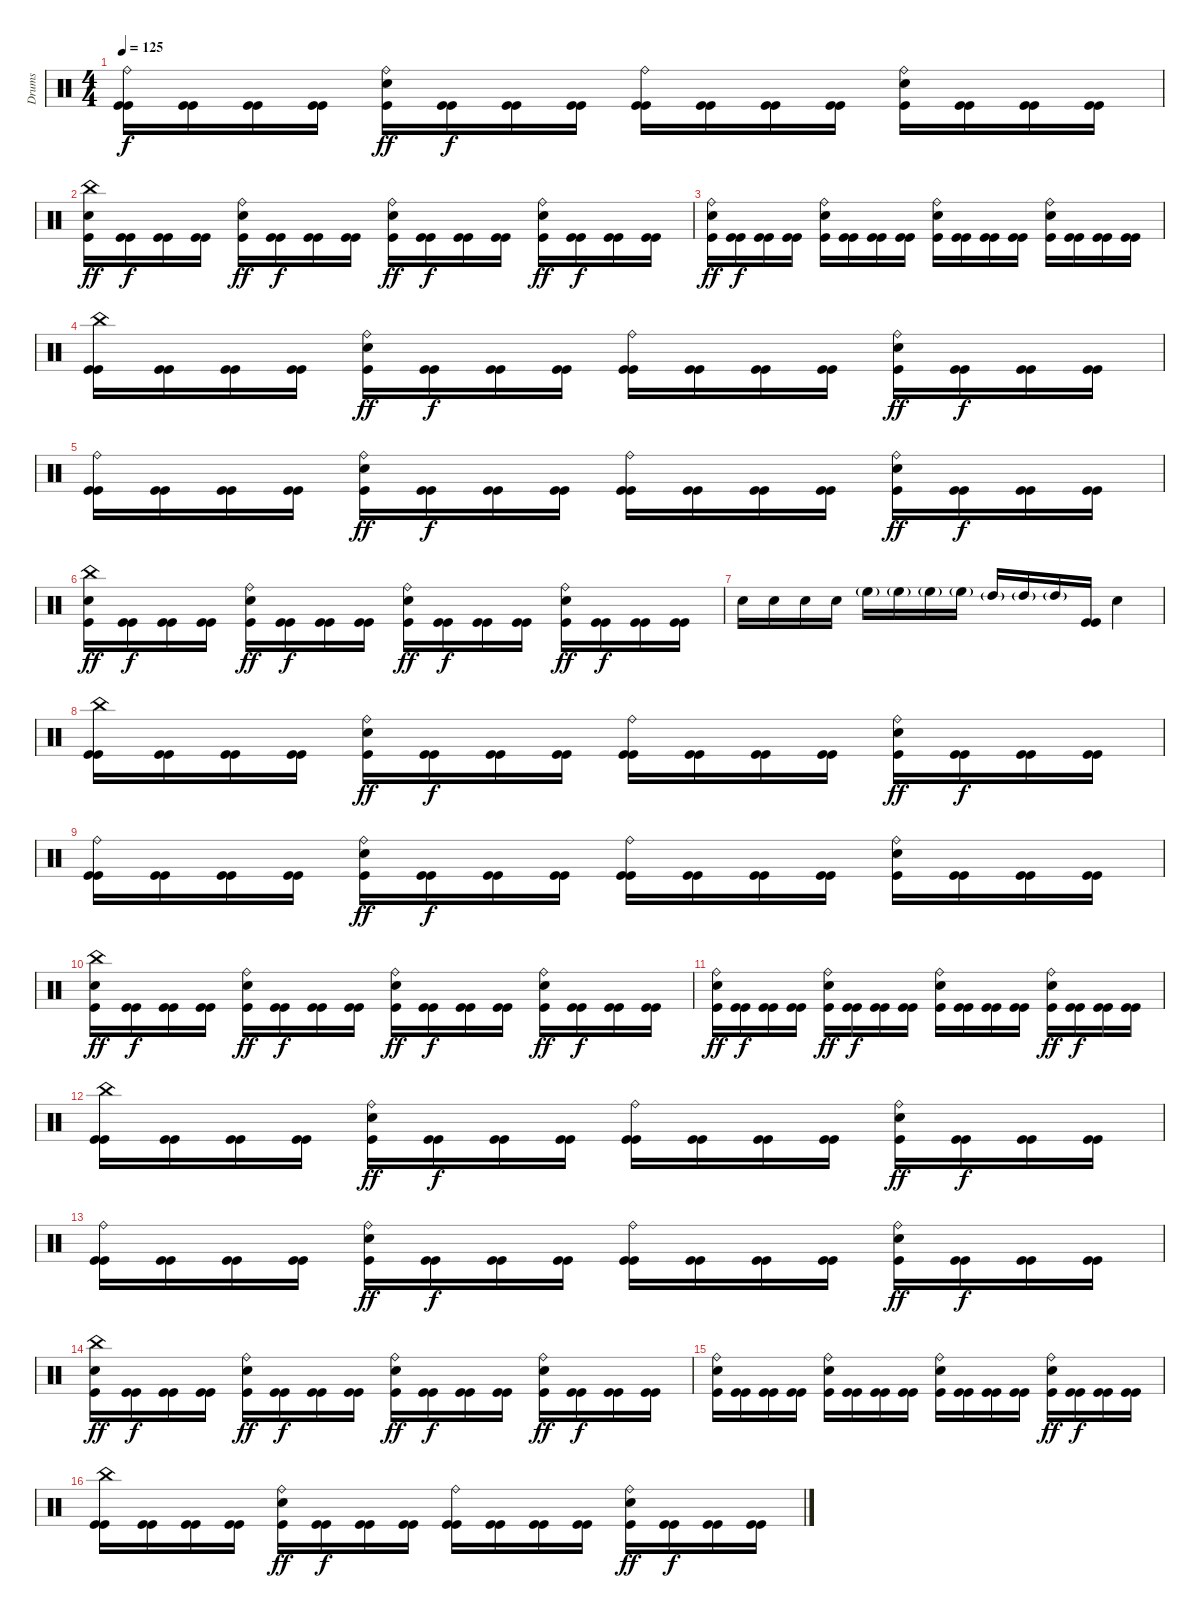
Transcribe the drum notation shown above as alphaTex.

\track ("Drums" "Drums") {instrument percussion}
\staff {score}
\articulation defaults
\ts (4 4)
\tempo 125
\clef neutral
\ks c
("Ride (bell)" "Kick (hit)" "Kick (hit)").16{dy f} ("Kick (hit)" "Kick (hit)").16 ("Kick (hit)" "Kick (hit)").16 ("Kick (hit)" "Kick (hit)").16 ("Ride (bell)" "Electric Snare (hit)" "Kick (hit)").16{dy ff} ("Kick (hit)" "Kick (hit)").16{dy f} ("Kick (hit)" "Kick (hit)").16 ("Kick (hit)" "Kick (hit)").16 ("Ride (bell)" "Kick (hit)" "Kick (hit)").16 ("Kick (hit)" "Kick (hit)").16 ("Kick (hit)" "Kick (hit)").16 ("Kick (hit)" "Kick (hit)").16 ("Ride (bell)" "Electric Snare (hit)" "Kick (hit)").16 ("Kick (hit)" "Kick (hit)").16 ("Kick (hit)" "Kick (hit)").16 ("Kick (hit)" "Kick (hit)").16 |
("China (hit)" "Electric Snare (hit)" "Kick (hit)").16{dy ff} ("Kick (hit)" "Kick (hit)").16{dy f} ("Kick (hit)" "Kick (hit)").16 ("Kick (hit)" "Kick (hit)").16 ("Ride (bell)" "Electric Snare (hit)" "Kick (hit)").16{dy ff} ("Kick (hit)" "Kick (hit)").16{dy f} ("Kick (hit)" "Kick (hit)").16 ("Kick (hit)" "Kick (hit)").16 ("Ride (bell)" "Electric Snare (hit)" "Kick (hit)").16{dy ff} ("Kick (hit)" "Kick (hit)").16{dy f} ("Kick (hit)" "Kick (hit)").16 ("Kick (hit)" "Kick (hit)").16 ("Ride (bell)" "Electric Snare (hit)" "Kick (hit)").16{dy ff} ("Kick (hit)" "Kick (hit)").16{dy f} ("Kick (hit)" "Kick (hit)").16 ("Kick (hit)" "Kick (hit)").16 |
("Ride (bell)" "Electric Snare (hit)" "Kick (hit)").16{dy ff} ("Kick (hit)" "Kick (hit)").16{dy f} ("Kick (hit)" "Kick (hit)").16 ("Kick (hit)" "Kick (hit)").16 ("Ride (bell)" "Electric Snare (hit)" "Kick (hit)").16 ("Kick (hit)" "Kick (hit)").16 ("Kick (hit)" "Kick (hit)").16 ("Kick (hit)" "Kick (hit)").16 ("Ride (bell)" "Electric Snare (hit)" "Kick (hit)").16 ("Kick (hit)" "Kick (hit)").16 ("Kick (hit)" "Kick (hit)").16 ("Kick (hit)" "Kick (hit)").16 ("Ride (bell)" "Electric Snare (hit)" "Kick (hit)").16 ("Kick (hit)" "Kick (hit)").16 ("Kick (hit)" "Kick (hit)").16 ("Kick (hit)" "Kick (hit)").16 |
("China (hit)" "Kick (hit)" "Kick (hit)").16 ("Kick (hit)" "Kick (hit)").16 ("Kick (hit)" "Kick (hit)").16 ("Kick (hit)" "Kick (hit)").16 ("Ride (bell)" "Electric Snare (hit)" "Kick (hit)").16{dy ff} ("Kick (hit)" "Kick (hit)").16{dy f} ("Kick (hit)" "Kick (hit)").16 ("Kick (hit)" "Kick (hit)").16 ("Ride (bell)" "Kick (hit)" "Kick (hit)").16 ("Kick (hit)" "Kick (hit)").16 ("Kick (hit)" "Kick (hit)").16 ("Kick (hit)" "Kick (hit)").16 ("Ride (bell)" "Electric Snare (hit)" "Kick (hit)").16{dy ff} ("Kick (hit)" "Kick (hit)").16{dy f} ("Kick (hit)" "Kick (hit)").16 ("Kick (hit)" "Kick (hit)").16 |
("Ride (bell)" "Kick (hit)" "Kick (hit)").16 ("Kick (hit)" "Kick (hit)").16 ("Kick (hit)" "Kick (hit)").16 ("Kick (hit)" "Kick (hit)").16 ("Ride (bell)" "Electric Snare (hit)" "Kick (hit)").16{dy ff} ("Kick (hit)" "Kick (hit)").16{dy f} ("Kick (hit)" "Kick (hit)").16 ("Kick (hit)" "Kick (hit)").16 ("Ride (bell)" "Kick (hit)" "Kick (hit)").16 ("Kick (hit)" "Kick (hit)").16 ("Kick (hit)" "Kick (hit)").16 ("Kick (hit)" "Kick (hit)").16 ("Ride (bell)" "Electric Snare (hit)" "Kick (hit)").16{dy ff} ("Kick (hit)" "Kick (hit)").16{dy f} ("Kick (hit)" "Kick (hit)").16 ("Kick (hit)" "Kick (hit)").16 |
("China (hit)" "Electric Snare (hit)" "Kick (hit)").16{dy ff} ("Kick (hit)" "Kick (hit)").16{dy f} ("Kick (hit)" "Kick (hit)").16 ("Kick (hit)" "Kick (hit)").16 ("Ride (bell)" "Electric Snare (hit)" "Kick (hit)").16{dy ff} ("Kick (hit)" "Kick (hit)").16{dy f} ("Kick (hit)" "Kick (hit)").16 ("Kick (hit)" "Kick (hit)").16 ("Ride (bell)" "Electric Snare (hit)" "Kick (hit)").16{dy ff} ("Kick (hit)" "Kick (hit)").16{dy f} ("Kick (hit)" "Kick (hit)").16 ("Kick (hit)" "Kick (hit)").16 ("Ride (bell)" "Electric Snare (hit)" "Kick (hit)").16{dy ff} ("Kick (hit)" "Kick (hit)").16{dy f} ("Kick (hit)" "Kick (hit)").16 ("Kick (hit)" "Kick (hit)").16 |
"Electric Snare (hit)".16 "Electric Snare (hit)".16 "Electric Snare (hit)".16 "Electric Snare (hit)".16 "High Floor Tom (hit)"{g}.16 "High Floor Tom (hit)"{g}.16 "High Floor Tom (hit)"{g}.16 "High Floor Tom (hit)"{g}.16 "High Tom (hit)"{g}.16 "High Tom (hit)"{g}.16 "High Tom (hit)"{g}.16 ("Kick (hit)" "Kick (hit)").16 "Electric Snare (hit)".4 |
("China (hit)" "Kick (hit)" "Kick (hit)").16 ("Kick (hit)" "Kick (hit)").16 ("Kick (hit)" "Kick (hit)").16 ("Kick (hit)" "Kick (hit)").16 ("Ride (bell)" "Electric Snare (hit)" "Kick (hit)").16{dy ff} ("Kick (hit)" "Kick (hit)").16{dy f} ("Kick (hit)" "Kick (hit)").16 ("Kick (hit)" "Kick (hit)").16 ("Ride (bell)" "Kick (hit)" "Kick (hit)").16 ("Kick (hit)" "Kick (hit)").16 ("Kick (hit)" "Kick (hit)").16 ("Kick (hit)" "Kick (hit)").16 ("Ride (bell)" "Electric Snare (hit)" "Kick (hit)").16{dy ff} ("Kick (hit)" "Kick (hit)").16{dy f} ("Kick (hit)" "Kick (hit)").16 ("Kick (hit)" "Kick (hit)").16 |
("Ride (bell)" "Kick (hit)" "Kick (hit)").16 ("Kick (hit)" "Kick (hit)").16 ("Kick (hit)" "Kick (hit)").16 ("Kick (hit)" "Kick (hit)").16 ("Ride (bell)" "Electric Snare (hit)" "Kick (hit)").16{dy ff} ("Kick (hit)" "Kick (hit)").16{dy f} ("Kick (hit)" "Kick (hit)").16 ("Kick (hit)" "Kick (hit)").16 ("Ride (bell)" "Kick (hit)" "Kick (hit)").16 ("Kick (hit)" "Kick (hit)").16 ("Kick (hit)" "Kick (hit)").16 ("Kick (hit)" "Kick (hit)").16 ("Ride (bell)" "Electric Snare (hit)" "Kick (hit)").16 ("Kick (hit)" "Kick (hit)").16 ("Kick (hit)" "Kick (hit)").16 ("Kick (hit)" "Kick (hit)").16 |
("China (hit)" "Electric Snare (hit)" "Kick (hit)").16{dy ff} ("Kick (hit)" "Kick (hit)").16{dy f} ("Kick (hit)" "Kick (hit)").16 ("Kick (hit)" "Kick (hit)").16 ("Ride (bell)" "Electric Snare (hit)" "Kick (hit)").16{dy ff} ("Kick (hit)" "Kick (hit)").16{dy f} ("Kick (hit)" "Kick (hit)").16 ("Kick (hit)" "Kick (hit)").16 ("Ride (bell)" "Electric Snare (hit)" "Kick (hit)").16{dy ff} ("Kick (hit)" "Kick (hit)").16{dy f} ("Kick (hit)" "Kick (hit)").16 ("Kick (hit)" "Kick (hit)").16 ("Ride (bell)" "Electric Snare (hit)" "Kick (hit)").16{dy ff} ("Kick (hit)" "Kick (hit)").16{dy f} ("Kick (hit)" "Kick (hit)").16 ("Kick (hit)" "Kick (hit)").16 |
("Ride (bell)" "Electric Snare (hit)" "Kick (hit)").16{dy ff} ("Kick (hit)" "Kick (hit)").16{dy f} ("Kick (hit)" "Kick (hit)").16 ("Kick (hit)" "Kick (hit)").16 ("Ride (bell)" "Electric Snare (hit)" "Kick (hit)").16{dy ff} ("Kick (hit)" "Kick (hit)").16{dy f} ("Kick (hit)" "Kick (hit)").16 ("Kick (hit)" "Kick (hit)").16 ("Ride (bell)" "Electric Snare (hit)" "Kick (hit)").16 ("Kick (hit)" "Kick (hit)").16 ("Kick (hit)" "Kick (hit)").16 ("Kick (hit)" "Kick (hit)").16 ("Ride (bell)" "Electric Snare (hit)" "Kick (hit)").16{dy ff} ("Kick (hit)" "Kick (hit)").16{dy f} ("Kick (hit)" "Kick (hit)").16 ("Kick (hit)" "Kick (hit)").16 |
("China (hit)" "Kick (hit)" "Kick (hit)").16 ("Kick (hit)" "Kick (hit)").16 ("Kick (hit)" "Kick (hit)").16 ("Kick (hit)" "Kick (hit)").16 ("Ride (bell)" "Electric Snare (hit)" "Kick (hit)").16{dy ff} ("Kick (hit)" "Kick (hit)").16{dy f} ("Kick (hit)" "Kick (hit)").16 ("Kick (hit)" "Kick (hit)").16 ("Ride (bell)" "Kick (hit)" "Kick (hit)").16 ("Kick (hit)" "Kick (hit)").16 ("Kick (hit)" "Kick (hit)").16 ("Kick (hit)" "Kick (hit)").16 ("Ride (bell)" "Electric Snare (hit)" "Kick (hit)").16{dy ff} ("Kick (hit)" "Kick (hit)").16{dy f} ("Kick (hit)" "Kick (hit)").16 ("Kick (hit)" "Kick (hit)").16 |
("Ride (bell)" "Kick (hit)" "Kick (hit)").16 ("Kick (hit)" "Kick (hit)").16 ("Kick (hit)" "Kick (hit)").16 ("Kick (hit)" "Kick (hit)").16 ("Ride (bell)" "Electric Snare (hit)" "Kick (hit)").16{dy ff} ("Kick (hit)" "Kick (hit)").16{dy f} ("Kick (hit)" "Kick (hit)").16 ("Kick (hit)" "Kick (hit)").16 ("Ride (bell)" "Kick (hit)" "Kick (hit)").16 ("Kick (hit)" "Kick (hit)").16 ("Kick (hit)" "Kick (hit)").16 ("Kick (hit)" "Kick (hit)").16 ("Ride (bell)" "Electric Snare (hit)" "Kick (hit)").16{dy ff} ("Kick (hit)" "Kick (hit)").16{dy f} ("Kick (hit)" "Kick (hit)").16 ("Kick (hit)" "Kick (hit)").16 |
("China (hit)" "Electric Snare (hit)" "Kick (hit)").16{dy ff} ("Kick (hit)" "Kick (hit)").16{dy f} ("Kick (hit)" "Kick (hit)").16 ("Kick (hit)" "Kick (hit)").16 ("Ride (bell)" "Electric Snare (hit)" "Kick (hit)").16{dy ff} ("Kick (hit)" "Kick (hit)").16{dy f} ("Kick (hit)" "Kick (hit)").16 ("Kick (hit)" "Kick (hit)").16 ("Ride (bell)" "Electric Snare (hit)" "Kick (hit)").16{dy ff} ("Kick (hit)" "Kick (hit)").16{dy f} ("Kick (hit)" "Kick (hit)").16 ("Kick (hit)" "Kick (hit)").16 ("Ride (bell)" "Electric Snare (hit)" "Kick (hit)").16{dy ff} ("Kick (hit)" "Kick (hit)").16{dy f} ("Kick (hit)" "Kick (hit)").16 ("Kick (hit)" "Kick (hit)").16 |
("Ride (bell)" "Electric Snare (hit)" "Kick (hit)").16 ("Kick (hit)" "Kick (hit)").16 ("Kick (hit)" "Kick (hit)").16 ("Kick (hit)" "Kick (hit)").16 ("Ride (bell)" "Electric Snare (hit)" "Kick (hit)").16 ("Kick (hit)" "Kick (hit)").16 ("Kick (hit)" "Kick (hit)").16 ("Kick (hit)" "Kick (hit)").16 ("Ride (bell)" "Electric Snare (hit)" "Kick (hit)").16 ("Kick (hit)" "Kick (hit)").16 ("Kick (hit)" "Kick (hit)").16 ("Kick (hit)" "Kick (hit)").16 ("Ride (bell)" "Electric Snare (hit)" "Kick (hit)").16{dy ff} ("Kick (hit)" "Kick (hit)").16{dy f} ("Kick (hit)" "Kick (hit)").16 ("Kick (hit)" "Kick (hit)").16 |
("China (hit)" "Kick (hit)" "Kick (hit)").16 ("Kick (hit)" "Kick (hit)").16 ("Kick (hit)" "Kick (hit)").16 ("Kick (hit)" "Kick (hit)").16 ("Ride (bell)" "Electric Snare (hit)" "Kick (hit)").16{dy ff} ("Kick (hit)" "Kick (hit)").16{dy f} ("Kick (hit)" "Kick (hit)").16 ("Kick (hit)" "Kick (hit)").16 ("Ride (bell)" "Kick (hit)" "Kick (hit)").16 ("Kick (hit)" "Kick (hit)").16 ("Kick (hit)" "Kick (hit)").16 ("Kick (hit)" "Kick (hit)").16 ("Ride (bell)" "Electric Snare (hit)" "Kick (hit)").16{dy ff} ("Kick (hit)" "Kick (hit)").16{dy f} ("Kick (hit)" "Kick (hit)").16 ("Kick (hit)" "Kick (hit)").16
